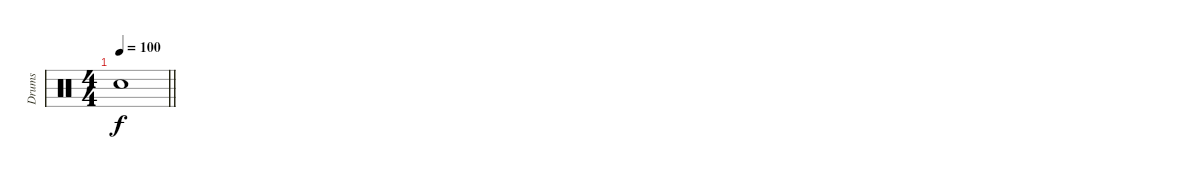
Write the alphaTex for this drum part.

\track ("Drums" "Drums") {instrument percussion}
\staff {score}
\articulation defaults
\ts (4 4)
\tempo 100
\clef neutral
\barLineRight lightlight
\ks c "Snare (hit)"{t}.1{dy f}
